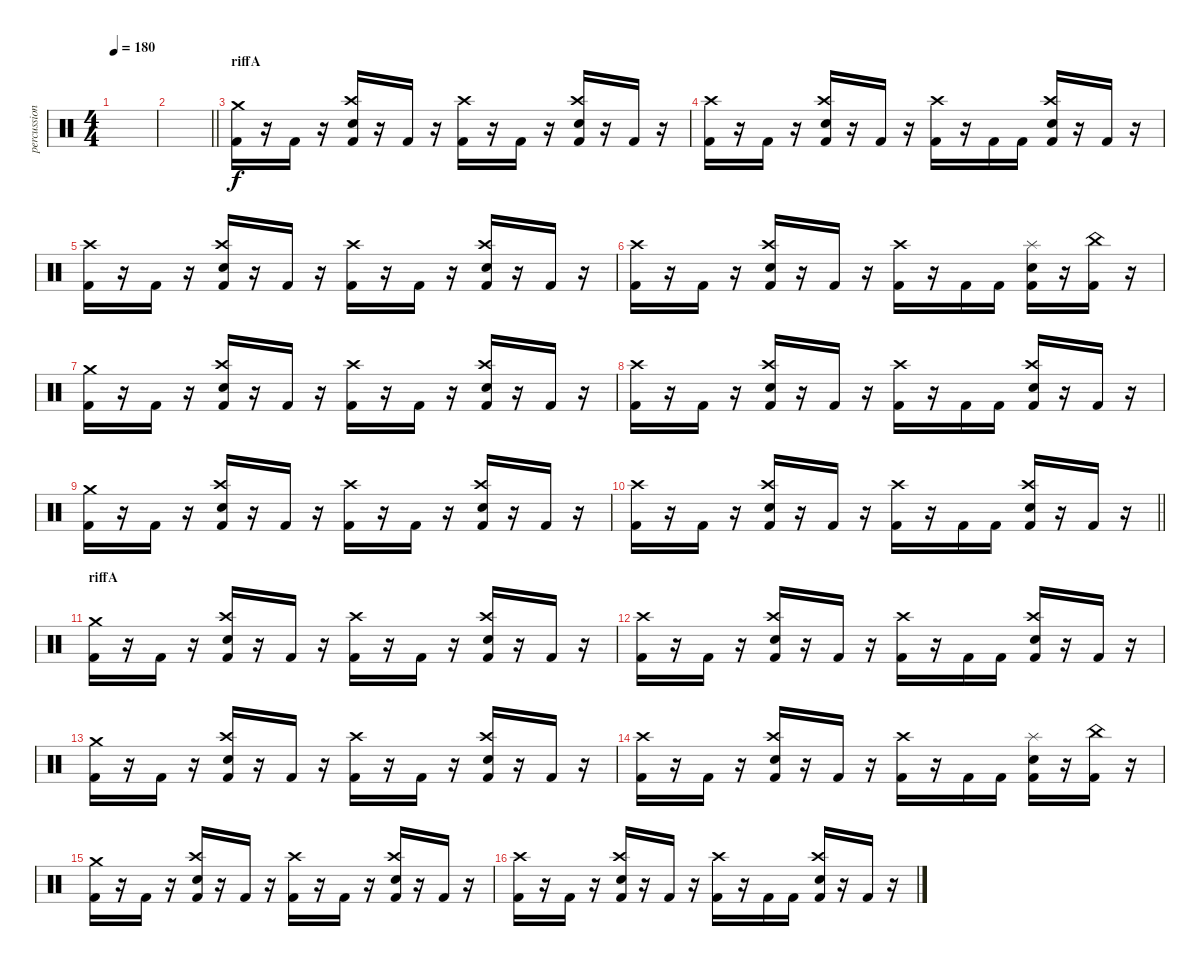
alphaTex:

\track ("percussion" "percussion") {instrument percussion}
\staff {score}
\articulation defaults
\ts (4 4)
\tempo 180
\clef neutral
\ks c
|
\barLineRight lightlight
|
\section ("" "riffA")
("Crash medium (hit)" "Kick (hit) 2").16 r.16 "Kick (hit) 2".16 r.16 ("Crash high (hit)" "Electric Snare (hit)" "Kick (hit) 2").16 r.16 "Kick (hit) 2".16 r.16 ("Crash high (hit)" "Kick (hit) 2").16 r.16 "Kick (hit) 2".16 r.16 ("Crash high (hit)" "Electric Snare (hit)" "Kick (hit) 2").16 r.16 "Kick (hit) 2".16 r.16 |
("Crash high (hit)" "Kick (hit) 2").16 r.16 "Kick (hit) 2".16 r.16 ("Crash high (hit)" "Electric Snare (hit)" "Kick (hit) 2").16 r.16 "Kick (hit) 2".16 r.16 ("Crash high (hit)" "Kick (hit) 2").16 r.16 "Kick (hit) 2".16 "Kick (hit) 2".16 ("Crash high (hit)" "Electric Snare (hit)" "Kick (hit) 2").16 r.16 "Kick (hit) 2".16 r.16 |
("Crash high (hit)" "Kick (hit) 2").16 r.16 "Kick (hit) 2".16 r.16 ("Crash high (hit)" "Electric Snare (hit)" "Kick (hit) 2").16 r.16 "Kick (hit) 2".16 r.16 ("Crash high (hit)" "Kick (hit) 2").16 r.16 "Kick (hit) 2".16 r.16 ("Crash high (hit)" "Electric Snare (hit)" "Kick (hit) 2").16 r.16 "Kick (hit) 2".16 r.16 |
("Crash high (hit)" "Kick (hit) 2").16 r.16 "Kick (hit) 2".16 r.16 ("Crash high (hit)" "Electric Snare (hit)" "Kick (hit) 2").16 r.16 "Kick (hit) 2".16 r.16 ("Crash high (hit)" "Kick (hit) 2").16 r.16 "Kick (hit) 2".16 "Kick (hit) 2".16 ("Splash (hit)" "Electric Snare (hit)" "Kick (hit) 2").16 r.16 ("China (hit)" "Kick (hit) 2").16 r.16 |
("Crash medium (hit)" "Kick (hit) 2").16 r.16 "Kick (hit) 2".16 r.16 ("Crash high (hit)" "Electric Snare (hit)" "Kick (hit) 2").16 r.16 "Kick (hit) 2".16 r.16 ("Crash high (hit)" "Kick (hit) 2").16 r.16 "Kick (hit) 2".16 r.16 ("Crash high (hit)" "Electric Snare (hit)" "Kick (hit) 2").16 r.16 "Kick (hit) 2".16 r.16 |
("Crash high (hit)" "Kick (hit) 2").16 r.16 "Kick (hit) 2".16 r.16 ("Crash high (hit)" "Electric Snare (hit)" "Kick (hit) 2").16 r.16 "Kick (hit) 2".16 r.16 ("Crash high (hit)" "Kick (hit) 2").16 r.16 "Kick (hit) 2".16 "Kick (hit) 2".16 ("Crash high (hit)" "Electric Snare (hit)" "Kick (hit) 2").16 r.16 "Kick (hit) 2".16 r.16 |
("Crash medium (hit)" "Kick (hit) 2").16 r.16 "Kick (hit) 2".16 r.16 ("Crash high (hit)" "Electric Snare (hit)" "Kick (hit) 2").16 r.16 "Kick (hit) 2".16 r.16 ("Crash high (hit)" "Kick (hit) 2").16 r.16 "Kick (hit) 2".16 r.16 ("Crash high (hit)" "Electric Snare (hit)" "Kick (hit) 2").16 r.16 "Kick (hit) 2".16 r.16 |
\barLineRight lightlight
("Crash high (hit)" "Kick (hit) 2").16 r.16 "Kick (hit) 2".16 r.16 ("Crash high (hit)" "Electric Snare (hit)" "Kick (hit) 2").16 r.16 "Kick (hit) 2".16 r.16 ("Crash high (hit)" "Kick (hit) 2").16 r.16 "Kick (hit) 2".16 "Kick (hit) 2".16 ("Crash high (hit)" "Electric Snare (hit)" "Kick (hit) 2").16 r.16 "Kick (hit) 2".16 r.16 |
\section ("" "riffA")
("Crash medium (hit)" "Kick (hit) 2").16 r.16 "Kick (hit) 2".16 r.16 ("Crash high (hit)" "Electric Snare (hit)" "Kick (hit) 2").16 r.16 "Kick (hit) 2".16 r.16 ("Crash high (hit)" "Kick (hit) 2").16 r.16 "Kick (hit) 2".16 r.16 ("Crash high (hit)" "Electric Snare (hit)" "Kick (hit) 2").16 r.16 "Kick (hit) 2".16 r.16 |
("Crash high (hit)" "Kick (hit) 2").16 r.16 "Kick (hit) 2".16 r.16 ("Crash high (hit)" "Electric Snare (hit)" "Kick (hit) 2").16 r.16 "Kick (hit) 2".16 r.16 ("Crash high (hit)" "Kick (hit) 2").16 r.16 "Kick (hit) 2".16 "Kick (hit) 2".16 ("Crash high (hit)" "Electric Snare (hit)" "Kick (hit) 2").16 r.16 "Kick (hit) 2".16 r.16 |
("Crash medium (hit)" "Kick (hit) 2").16 r.16 "Kick (hit) 2".16 r.16 ("Crash high (hit)" "Electric Snare (hit)" "Kick (hit) 2").16 r.16 "Kick (hit) 2".16 r.16 ("Crash high (hit)" "Kick (hit) 2").16 r.16 "Kick (hit) 2".16 r.16 ("Crash high (hit)" "Electric Snare (hit)" "Kick (hit) 2").16 r.16 "Kick (hit) 2".16 r.16 |
("Crash high (hit)" "Kick (hit) 2").16 r.16 "Kick (hit) 2".16 r.16 ("Crash high (hit)" "Electric Snare (hit)" "Kick (hit) 2").16 r.16 "Kick (hit) 2".16 r.16 ("Crash high (hit)" "Kick (hit) 2").16 r.16 "Kick (hit) 2".16 "Kick (hit) 2".16 ("Splash (hit)" "Electric Snare (hit)" "Kick (hit) 2").16 r.16 ("China (hit)" "Kick (hit) 2").16 r.16 |
("Crash medium (hit)" "Kick (hit) 2").16 r.16 "Kick (hit) 2".16 r.16 ("Crash high (hit)" "Electric Snare (hit)" "Kick (hit) 2").16 r.16 "Kick (hit) 2".16 r.16 ("Crash high (hit)" "Kick (hit) 2").16 r.16 "Kick (hit) 2".16 r.16 ("Crash high (hit)" "Electric Snare (hit)" "Kick (hit) 2").16 r.16 "Kick (hit) 2".16 r.16 |
("Crash high (hit)" "Kick (hit) 2").16 r.16 "Kick (hit) 2".16 r.16 ("Crash high (hit)" "Electric Snare (hit)" "Kick (hit) 2").16 r.16 "Kick (hit) 2".16 r.16 ("Crash high (hit)" "Kick (hit) 2").16 r.16 "Kick (hit) 2".16 "Kick (hit) 2".16 ("Crash high (hit)" "Electric Snare (hit)" "Kick (hit) 2").16 r.16 "Kick (hit) 2".16 r.16
